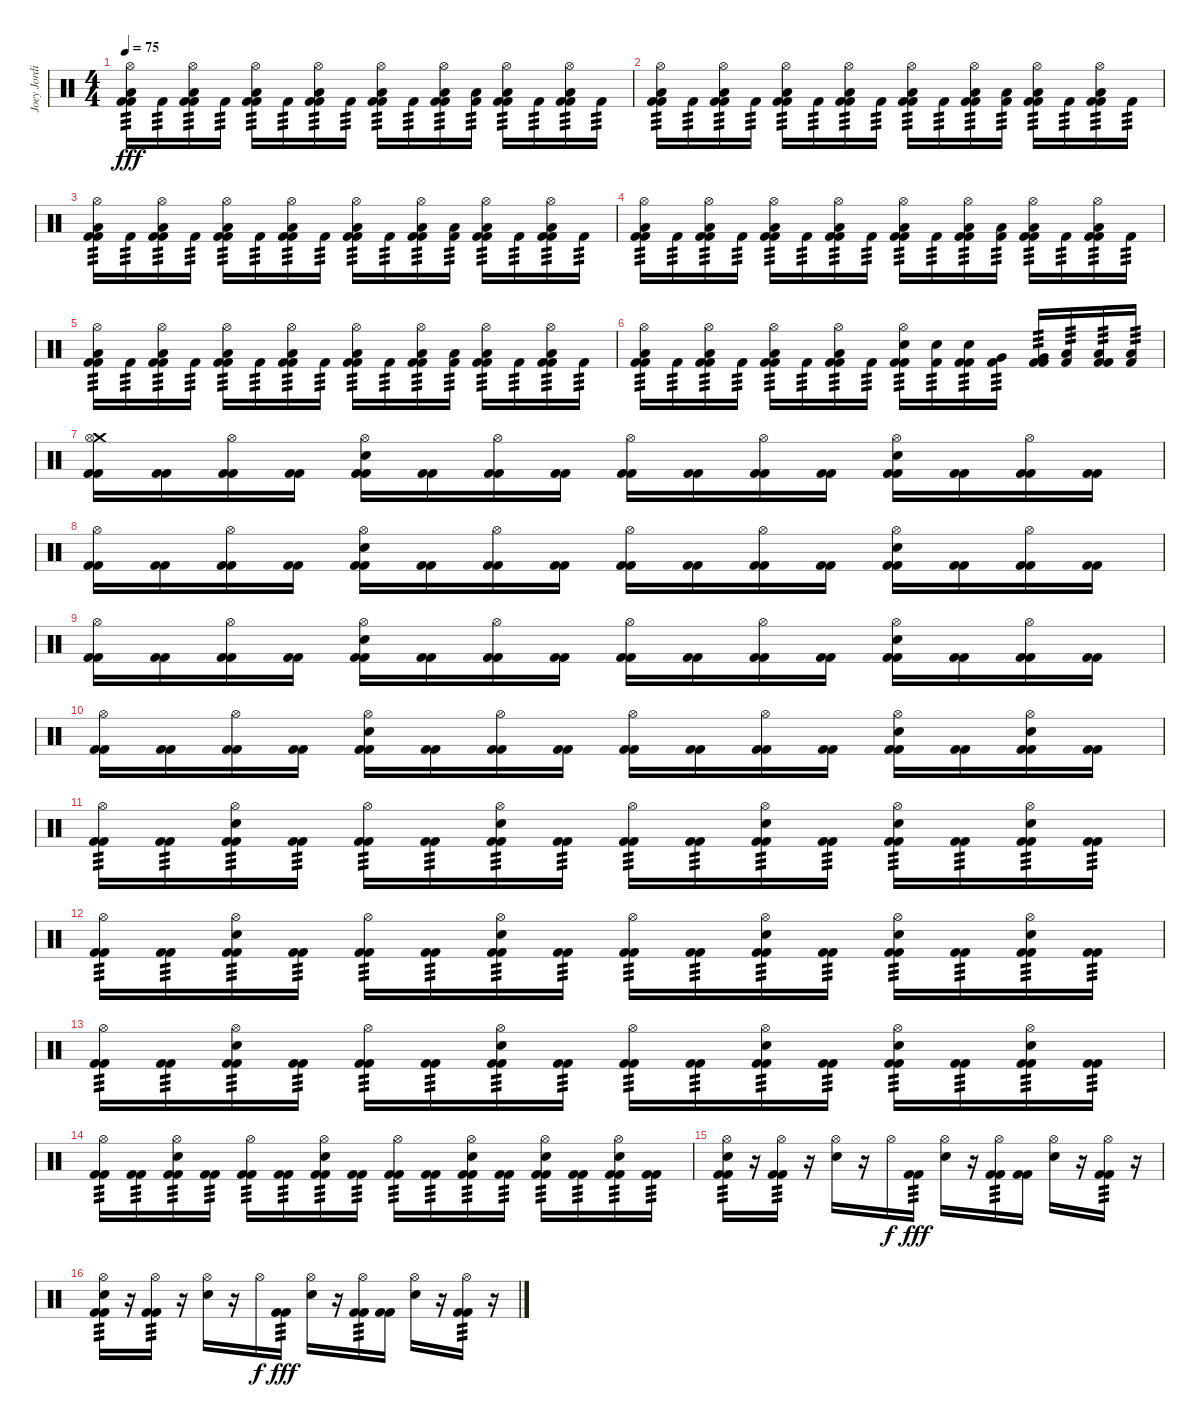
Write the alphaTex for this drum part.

\track ("Joey Jordison" "Joey Jordi") {instrument percussion}
\staff {score}
\articulation defaults
\ts (4 4)
\tempo 75
\clef neutral
\ks c
("Hi-Hat (open)" "Low Floor Tom (hit)" "Kick (hit) 2" "Kick (hit) 2").16{tp 3 dy fff} "Kick (hit) 2".16{tp 3} ("Hi-Hat (open)" "Low Floor Tom (hit)" "Kick (hit) 2" "Kick (hit) 2").16{tp 3} "Kick (hit) 2".16{tp 3} ("Hi-Hat (open)" "Low Floor Tom (hit)" "Kick (hit) 2" "Kick (hit) 2").16{tp 3} "Kick (hit) 2".16{tp 3} ("Hi-Hat (open)" "Low Floor Tom (hit)" "Kick (hit) 2" "Kick (hit) 2").16{tp 3} "Kick (hit) 2".16{tp 3} ("Hi-Hat (open)" "Low Floor Tom (hit)" "Kick (hit) 2" "Kick (hit) 2").16{tp 3} "Kick (hit) 2".16{tp 3} ("Hi-Hat (open)" "Low Floor Tom (hit)" "Kick (hit) 2" "Kick (hit) 2").16{tp 3} ("Low Floor Tom (hit)" "Kick (hit) 2").16{tp 3} ("Hi-Hat (open)" "Low Floor Tom (hit)" "Kick (hit) 2" "Kick (hit) 2").16{tp 3} "Kick (hit) 2".16{tp 3} ("Hi-Hat (open)" "Low Floor Tom (hit)" "Kick (hit) 2" "Kick (hit) 2").16{tp 3} "Kick (hit) 2".16{tp 3} |
("Hi-Hat (open)" "Low Floor Tom (hit)" "Kick (hit) 2" "Kick (hit) 2").16{tp 3} "Kick (hit) 2".16{tp 3} ("Hi-Hat (open)" "Low Floor Tom (hit)" "Kick (hit) 2" "Kick (hit) 2").16{tp 3} "Kick (hit) 2".16{tp 3} ("Hi-Hat (open)" "Low Floor Tom (hit)" "Kick (hit) 2" "Kick (hit) 2").16{tp 3} "Kick (hit) 2".16{tp 3} ("Hi-Hat (open)" "Low Floor Tom (hit)" "Kick (hit) 2" "Kick (hit) 2").16{tp 3} "Kick (hit) 2".16{tp 3} ("Hi-Hat (open)" "Low Floor Tom (hit)" "Kick (hit) 2" "Kick (hit) 2").16{tp 3} "Kick (hit) 2".16{tp 3} ("Hi-Hat (open)" "Low Floor Tom (hit)" "Kick (hit) 2" "Kick (hit) 2").16{tp 3} ("Low Floor Tom (hit)" "Kick (hit) 2").16{tp 3} ("Hi-Hat (open)" "Low Floor Tom (hit)" "Kick (hit) 2" "Kick (hit) 2").16{tp 3} "Kick (hit) 2".16{tp 3} ("Hi-Hat (open)" "Low Floor Tom (hit)" "Kick (hit) 2" "Kick (hit) 2").16{tp 3} "Kick (hit) 2".16{tp 3} |
("Hi-Hat (open)" "Low Floor Tom (hit)" "Kick (hit) 2" "Kick (hit) 2").16{tp 3} "Kick (hit) 2".16{tp 3} ("Hi-Hat (open)" "Low Floor Tom (hit)" "Kick (hit) 2" "Kick (hit) 2").16{tp 3} "Kick (hit) 2".16{tp 3} ("Hi-Hat (open)" "Low Floor Tom (hit)" "Kick (hit) 2" "Kick (hit) 2").16{tp 3} "Kick (hit) 2".16{tp 3} ("Hi-Hat (open)" "Low Floor Tom (hit)" "Kick (hit) 2" "Kick (hit) 2").16{tp 3} "Kick (hit) 2".16{tp 3} ("Hi-Hat (open)" "Low Floor Tom (hit)" "Kick (hit) 2" "Kick (hit) 2").16{tp 3} "Kick (hit) 2".16{tp 3} ("Hi-Hat (open)" "Low Floor Tom (hit)" "Kick (hit) 2" "Kick (hit) 2").16{tp 3} ("Low Floor Tom (hit)" "Kick (hit) 2").16{tp 3} ("Hi-Hat (open)" "Low Floor Tom (hit)" "Kick (hit) 2" "Kick (hit) 2").16{tp 3} "Kick (hit) 2".16{tp 3} ("Hi-Hat (open)" "Low Floor Tom (hit)" "Kick (hit) 2" "Kick (hit) 2").16{tp 3} "Kick (hit) 2".16{tp 3} |
("Hi-Hat (open)" "Low Floor Tom (hit)" "Kick (hit) 2" "Kick (hit) 2").16{tp 3} "Kick (hit) 2".16{tp 3} ("Hi-Hat (open)" "Low Floor Tom (hit)" "Kick (hit) 2" "Kick (hit) 2").16{tp 3} "Kick (hit) 2".16{tp 3} ("Hi-Hat (open)" "Low Floor Tom (hit)" "Kick (hit) 2" "Kick (hit) 2").16{tp 3} "Kick (hit) 2".16{tp 3} ("Hi-Hat (open)" "Low Floor Tom (hit)" "Kick (hit) 2" "Kick (hit) 2").16{tp 3} "Kick (hit) 2".16{tp 3} ("Hi-Hat (open)" "Low Floor Tom (hit)" "Kick (hit) 2" "Kick (hit) 2").16{tp 3} "Kick (hit) 2".16{tp 3} ("Hi-Hat (open)" "Low Floor Tom (hit)" "Kick (hit) 2" "Kick (hit) 2").16{tp 3} ("Low Floor Tom (hit)" "Kick (hit) 2").16{tp 3} ("Hi-Hat (open)" "Low Floor Tom (hit)" "Kick (hit) 2" "Kick (hit) 2").16{tp 3} "Kick (hit) 2".16{tp 3} ("Hi-Hat (open)" "Low Floor Tom (hit)" "Kick (hit) 2" "Kick (hit) 2").16{tp 3} "Kick (hit) 2".16{tp 3} |
("Hi-Hat (open)" "Low Floor Tom (hit)" "Kick (hit) 2" "Kick (hit) 2").16{tp 3} "Kick (hit) 2".16{tp 3} ("Hi-Hat (open)" "Low Floor Tom (hit)" "Kick (hit) 2" "Kick (hit) 2").16{tp 3} "Kick (hit) 2".16{tp 3} ("Hi-Hat (open)" "Low Floor Tom (hit)" "Kick (hit) 2" "Kick (hit) 2").16{tp 3} "Kick (hit) 2".16{tp 3} ("Hi-Hat (open)" "Low Floor Tom (hit)" "Kick (hit) 2" "Kick (hit) 2").16{tp 3} "Kick (hit) 2".16{tp 3} ("Hi-Hat (open)" "Low Floor Tom (hit)" "Kick (hit) 2" "Kick (hit) 2").16{tp 3} "Kick (hit) 2".16{tp 3} ("Hi-Hat (open)" "Low Floor Tom (hit)" "Kick (hit) 2" "Kick (hit) 2").16{tp 3} ("Low Floor Tom (hit)" "Kick (hit) 2").16{tp 3} ("Hi-Hat (open)" "Low Floor Tom (hit)" "Kick (hit) 2" "Kick (hit) 2").16{tp 3} "Kick (hit) 2".16{tp 3} ("Hi-Hat (open)" "Low Floor Tom (hit)" "Kick (hit) 2" "Kick (hit) 2").16{tp 3} "Kick (hit) 2".16{tp 3} |
("Hi-Hat (open)" "Low Floor Tom (hit)" "Kick (hit) 2" "Kick (hit) 2").16{tp 3} "Kick (hit) 2".16{tp 3} ("Hi-Hat (open)" "Low Floor Tom (hit)" "Kick (hit) 2" "Kick (hit) 2").16{tp 3} "Kick (hit) 2".16{tp 3} ("Hi-Hat (open)" "Low Floor Tom (hit)" "Kick (hit) 2" "Kick (hit) 2").16{tp 3} "Kick (hit) 2".16{tp 3} ("Hi-Hat (open)" "Low Floor Tom (hit)" "Kick (hit) 2" "Kick (hit) 2").16{tp 3} "Kick (hit) 2".16{tp 3} ("Hi-Hat (open)" "Electric Snare (hit)" "Kick (hit) 2" "Kick (hit) 2").16{tp 3} ("Electric Snare (hit)" "Kick (hit) 2").16{tp 3} ("Electric Snare (hit)" "Kick (hit) 2" "Kick (hit) 2").16{tp 3} ("Very Low Tom (hit)" "Kick (hit) 2").16{tp 3} ("Very Low Tom (hit)" "Kick (hit) 2" "Kick (hit) 2").16{tp 3} ("Low Floor Tom (hit)" "Kick (hit) 2").16{tp 3} ("Low Floor Tom (hit)" "Kick (hit) 2" "Kick (hit) 2").16{tp 3} ("Low Floor Tom (hit)" "Kick (hit) 2").16{tp 3} |
("Crash medium (hit)" "Hi-Hat (open)" "Kick (hit) 2" "Kick (hit) 2").16 ("Kick (hit) 2" "Kick (hit) 2").16 ("Hi-Hat (open)" "Kick (hit) 2" "Kick (hit) 2").16 ("Kick (hit) 2" "Kick (hit) 2").16 ("Hi-Hat (open)" "Electric Snare (hit)" "Kick (hit) 2" "Kick (hit) 2").16 ("Kick (hit) 2" "Kick (hit) 2").16 ("Hi-Hat (open)" "Kick (hit) 2" "Kick (hit) 2").16 ("Kick (hit) 2" "Kick (hit) 2").16 ("Hi-Hat (open)" "Kick (hit) 2" "Kick (hit) 2").16 ("Kick (hit) 2" "Kick (hit) 2").16 ("Hi-Hat (open)" "Kick (hit) 2" "Kick (hit) 2").16 ("Kick (hit) 2" "Kick (hit) 2").16 ("Hi-Hat (open)" "Electric Snare (hit)" "Kick (hit) 2" "Kick (hit) 2").16 ("Kick (hit) 2" "Kick (hit) 2").16 ("Hi-Hat (open)" "Kick (hit) 2" "Kick (hit) 2").16 ("Kick (hit) 2" "Kick (hit) 2").16 |
("Hi-Hat (open)" "Kick (hit) 2" "Kick (hit) 2").16 ("Kick (hit) 2" "Kick (hit) 2").16 ("Hi-Hat (open)" "Kick (hit) 2" "Kick (hit) 2").16 ("Kick (hit) 2" "Kick (hit) 2").16 ("Hi-Hat (open)" "Electric Snare (hit)" "Kick (hit) 2" "Kick (hit) 2").16 ("Kick (hit) 2" "Kick (hit) 2").16 ("Hi-Hat (open)" "Kick (hit) 2" "Kick (hit) 2").16 ("Kick (hit) 2" "Kick (hit) 2").16 ("Hi-Hat (open)" "Kick (hit) 2" "Kick (hit) 2").16 ("Kick (hit) 2" "Kick (hit) 2").16 ("Hi-Hat (open)" "Kick (hit) 2" "Kick (hit) 2").16 ("Kick (hit) 2" "Kick (hit) 2").16 ("Hi-Hat (open)" "Electric Snare (hit)" "Kick (hit) 2" "Kick (hit) 2").16 ("Kick (hit) 2" "Kick (hit) 2").16 ("Hi-Hat (open)" "Kick (hit) 2" "Kick (hit) 2").16 ("Kick (hit) 2" "Kick (hit) 2").16 |
("Hi-Hat (open)" "Kick (hit) 2" "Kick (hit) 2").16 ("Kick (hit) 2" "Kick (hit) 2").16 ("Hi-Hat (open)" "Kick (hit) 2" "Kick (hit) 2").16 ("Kick (hit) 2" "Kick (hit) 2").16 ("Hi-Hat (open)" "Electric Snare (hit)" "Kick (hit) 2" "Kick (hit) 2").16 ("Kick (hit) 2" "Kick (hit) 2").16 ("Hi-Hat (open)" "Kick (hit) 2" "Kick (hit) 2").16 ("Kick (hit) 2" "Kick (hit) 2").16 ("Hi-Hat (open)" "Kick (hit) 2" "Kick (hit) 2").16 ("Kick (hit) 2" "Kick (hit) 2").16 ("Hi-Hat (open)" "Kick (hit) 2" "Kick (hit) 2").16 ("Kick (hit) 2" "Kick (hit) 2").16 ("Hi-Hat (open)" "Electric Snare (hit)" "Kick (hit) 2" "Kick (hit) 2").16 ("Kick (hit) 2" "Kick (hit) 2").16 ("Hi-Hat (open)" "Kick (hit) 2" "Kick (hit) 2").16 ("Kick (hit) 2" "Kick (hit) 2").16 |
("Hi-Hat (open)" "Kick (hit) 2" "Kick (hit) 2").16 ("Kick (hit) 2" "Kick (hit) 2").16 ("Hi-Hat (open)" "Kick (hit) 2" "Kick (hit) 2").16 ("Kick (hit) 2" "Kick (hit) 2").16 ("Hi-Hat (open)" "Electric Snare (hit)" "Kick (hit) 2" "Kick (hit) 2").16 ("Kick (hit) 2" "Kick (hit) 2").16 ("Hi-Hat (open)" "Kick (hit) 2" "Kick (hit) 2").16 ("Kick (hit) 2" "Kick (hit) 2").16 ("Hi-Hat (open)" "Kick (hit) 2" "Kick (hit) 2").16 ("Kick (hit) 2" "Kick (hit) 2").16 ("Hi-Hat (open)" "Kick (hit) 2" "Kick (hit) 2").16 ("Kick (hit) 2" "Kick (hit) 2").16 ("Hi-Hat (open)" "Electric Snare (hit)" "Kick (hit) 2" "Kick (hit) 2").16 ("Kick (hit) 2" "Kick (hit) 2").16 ("Hi-Hat (open)" "Electric Snare (hit)" "Kick (hit) 2" "Kick (hit) 2").16 ("Kick (hit) 2" "Kick (hit) 2").16 |
("Hi-Hat (open)" "Kick (hit) 2" "Kick (hit) 2").16{tp 3} ("Kick (hit) 2" "Kick (hit) 2").16{tp 3} ("Hi-Hat (open)" "Electric Snare (hit)" "Kick (hit) 2" "Kick (hit) 2").16{tp 3} ("Kick (hit) 2" "Kick (hit) 2").16{tp 3} ("Hi-Hat (open)" "Kick (hit) 2" "Kick (hit) 2").16{tp 3} ("Kick (hit) 2" "Kick (hit) 2").16{tp 3} ("Hi-Hat (open)" "Electric Snare (hit)" "Kick (hit) 2" "Kick (hit) 2").16{tp 3} ("Kick (hit) 2" "Kick (hit) 2").16{tp 3} ("Hi-Hat (open)" "Kick (hit) 2" "Kick (hit) 2").16{tp 3} ("Kick (hit) 2" "Kick (hit) 2").16{tp 3} ("Hi-Hat (open)" "Electric Snare (hit)" "Kick (hit) 2" "Kick (hit) 2").16{tp 3} ("Kick (hit) 2" "Kick (hit) 2").16{tp 3} ("Hi-Hat (open)" "Electric Snare (hit)" "Kick (hit) 2" "Kick (hit) 2").16{tp 3} ("Kick (hit) 2" "Kick (hit) 2").16{tp 3} ("Hi-Hat (open)" "Electric Snare (hit)" "Kick (hit) 2" "Kick (hit) 2").16{tp 3} ("Kick (hit) 2" "Kick (hit) 2").16{tp 3} |
("Hi-Hat (open)" "Kick (hit) 2" "Kick (hit) 2").16{tp 3} ("Kick (hit) 2" "Kick (hit) 2").16{tp 3} ("Hi-Hat (open)" "Electric Snare (hit)" "Kick (hit) 2" "Kick (hit) 2").16{tp 3} ("Kick (hit) 2" "Kick (hit) 2").16{tp 3} ("Hi-Hat (open)" "Kick (hit) 2" "Kick (hit) 2").16{tp 3} ("Kick (hit) 2" "Kick (hit) 2").16{tp 3} ("Hi-Hat (open)" "Electric Snare (hit)" "Kick (hit) 2" "Kick (hit) 2").16{tp 3} ("Kick (hit) 2" "Kick (hit) 2").16{tp 3} ("Hi-Hat (open)" "Kick (hit) 2" "Kick (hit) 2").16{tp 3} ("Kick (hit) 2" "Kick (hit) 2").16{tp 3} ("Hi-Hat (open)" "Electric Snare (hit)" "Kick (hit) 2" "Kick (hit) 2").16{tp 3} ("Kick (hit) 2" "Kick (hit) 2").16{tp 3} ("Hi-Hat (open)" "Electric Snare (hit)" "Kick (hit) 2" "Kick (hit) 2").16{tp 3} ("Kick (hit) 2" "Kick (hit) 2").16{tp 3} ("Hi-Hat (open)" "Electric Snare (hit)" "Kick (hit) 2" "Kick (hit) 2").16{tp 3} ("Kick (hit) 2" "Kick (hit) 2").16{tp 3} |
("Hi-Hat (open)" "Kick (hit) 2" "Kick (hit) 2").16{tp 3} ("Kick (hit) 2" "Kick (hit) 2").16{tp 3} ("Hi-Hat (open)" "Electric Snare (hit)" "Kick (hit) 2" "Kick (hit) 2").16{tp 3} ("Kick (hit) 2" "Kick (hit) 2").16{tp 3} ("Hi-Hat (open)" "Kick (hit) 2" "Kick (hit) 2").16{tp 3} ("Kick (hit) 2" "Kick (hit) 2").16{tp 3} ("Hi-Hat (open)" "Electric Snare (hit)" "Kick (hit) 2" "Kick (hit) 2").16{tp 3} ("Kick (hit) 2" "Kick (hit) 2").16{tp 3} ("Hi-Hat (open)" "Kick (hit) 2" "Kick (hit) 2").16{tp 3} ("Kick (hit) 2" "Kick (hit) 2").16{tp 3} ("Hi-Hat (open)" "Electric Snare (hit)" "Kick (hit) 2" "Kick (hit) 2").16{tp 3} ("Kick (hit) 2" "Kick (hit) 2").16{tp 3} ("Hi-Hat (open)" "Electric Snare (hit)" "Kick (hit) 2" "Kick (hit) 2").16{tp 3} ("Kick (hit) 2" "Kick (hit) 2").16{tp 3} ("Hi-Hat (open)" "Electric Snare (hit)" "Kick (hit) 2" "Kick (hit) 2").16{tp 3} ("Kick (hit) 2" "Kick (hit) 2").16{tp 3} |
("Hi-Hat (open)" "Kick (hit) 2" "Kick (hit) 2").16{tp 3} ("Kick (hit) 2" "Kick (hit) 2").16{tp 3} ("Hi-Hat (open)" "Electric Snare (hit)" "Kick (hit) 2" "Kick (hit) 2").16{tp 3} ("Kick (hit) 2" "Kick (hit) 2").16{tp 3} ("Hi-Hat (open)" "Kick (hit) 2" "Kick (hit) 2").16{tp 3} ("Kick (hit) 2" "Kick (hit) 2").16{tp 3} ("Hi-Hat (open)" "Electric Snare (hit)" "Kick (hit) 2" "Kick (hit) 2").16{tp 3} ("Kick (hit) 2" "Kick (hit) 2").16{tp 3} ("Hi-Hat (open)" "Kick (hit) 2" "Kick (hit) 2").16{tp 3} ("Kick (hit) 2" "Kick (hit) 2").16{tp 3} ("Hi-Hat (open)" "Electric Snare (hit)" "Kick (hit) 2" "Kick (hit) 2").16{tp 3} ("Kick (hit) 2" "Kick (hit) 2").16{tp 3} ("Hi-Hat (open)" "Electric Snare (hit)" "Kick (hit) 2" "Kick (hit) 2").16{tp 3} ("Kick (hit) 2" "Kick (hit) 2").16{tp 3} ("Hi-Hat (open)" "Electric Snare (hit)" "Kick (hit) 2" "Kick (hit) 2").16{tp 3} ("Kick (hit) 2" "Kick (hit) 2").16{tp 3} |
("Hi-Hat (open)" "Electric Snare (hit)" "Kick (hit) 2" "Kick (hit) 2").16{tp 3} r.16 ("Hi-Hat (open)" "Kick (hit) 2" "Kick (hit) 2").16{tp 3} r.16 ("Hi-Hat (open)" "Electric Snare (hit)").16 r.16 "Hi-Hat (open)".16{dy f} ("Kick (hit) 2" "Kick (hit) 2").16{tp 3 dy fff} ("Hi-Hat (open)" "Electric Snare (hit)").16 r.16 ("Hi-Hat (open)" "Kick (hit) 2" "Kick (hit) 2").16{tp 3} ("Kick (hit) 2" "Kick (hit) 2").16 ("Hi-Hat (open)" "Electric Snare (hit)").16 r.16 ("Hi-Hat (open)" "Kick (hit) 2" "Kick (hit) 2").16{tp 3} r.16 |
("Hi-Hat (open)" "Electric Snare (hit)" "Kick (hit) 2" "Kick (hit) 2").16{tp 3} r.16 ("Hi-Hat (open)" "Kick (hit) 2" "Kick (hit) 2").16{tp 3} r.16 ("Hi-Hat (open)" "Electric Snare (hit)").16 r.16 "Hi-Hat (open)".16{dy f} ("Kick (hit) 2" "Kick (hit) 2").16{tp 3 dy fff} ("Hi-Hat (open)" "Electric Snare (hit)").16 r.16 ("Hi-Hat (open)" "Kick (hit) 2" "Kick (hit) 2").16{tp 3} ("Kick (hit) 2" "Kick (hit) 2").16 ("Hi-Hat (open)" "Electric Snare (hit)").16 r.16 ("Hi-Hat (open)" "Kick (hit) 2" "Kick (hit) 2").16{tp 3} r.16
